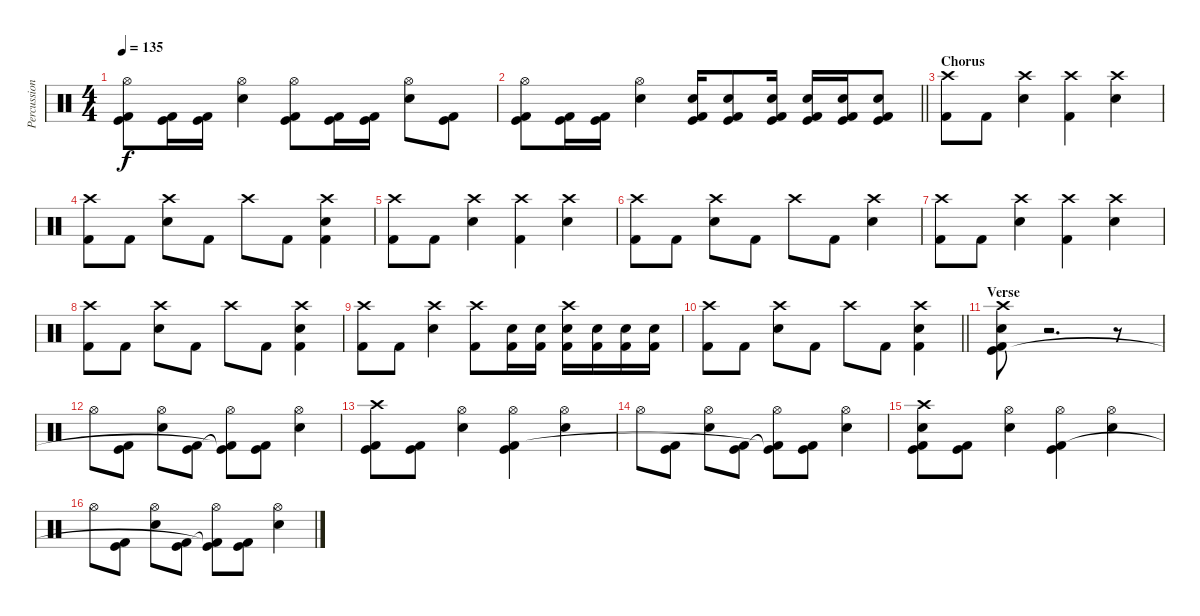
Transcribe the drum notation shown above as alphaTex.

\track ("Percussion" "Percussion") {instrument percussion}
\staff {score}
\articulation defaults
\ts (4 4)
\tempo 135
\clef neutral
\ks c
("Hi-Hat (open)" "Kick (hit)" "Kick (hit) 2").8{dy f} ("Kick (hit)" "Kick (hit) 2").16 ("Kick (hit)" "Kick (hit) 2").16 ("Hi-Hat (open)" "Electric Snare (hit)").4 ("Hi-Hat (open)" "Kick (hit)" "Kick (hit) 2").8 ("Kick (hit)" "Kick (hit) 2").16 ("Kick (hit)" "Kick (hit) 2").16 ("Hi-Hat (open)" "Electric Snare (hit)").8 ("Kick (hit)" "Kick (hit) 2").8 |
\barLineRight lightlight
("Hi-Hat (open)" "Kick (hit)" "Kick (hit) 2").8 ("Kick (hit)" "Kick (hit) 2").16 ("Kick (hit)" "Kick (hit) 2").16 ("Hi-Hat (open)" "Electric Snare (hit)").4 ("Electric Snare (hit)" "Kick (hit)" "Kick (hit) 2").16 ("Electric Snare (hit)" "Kick (hit)" "Kick (hit) 2").8 ("Electric Snare (hit)" "Kick (hit)" "Kick (hit) 2").16 ("Electric Snare (hit)" "Kick (hit)" "Kick (hit) 2").16 ("Electric Snare (hit)" "Kick (hit)" "Kick (hit) 2").16 ("Electric Snare (hit)" "Kick (hit)" "Kick (hit) 2").8 |
\section ("" "Chorus")
("Crash high (hit)" "Kick (hit) 2").8 "Kick (hit) 2".8 ("Crash high (hit)" "Electric Snare (hit)").4 ("Crash high (hit)" "Kick (hit) 2").4 ("Crash high (hit)" "Electric Snare (hit)").4 |
("Crash high (hit)" "Kick (hit) 2").8 "Kick (hit) 2".8 ("Crash high (hit)" "Electric Snare (hit)").8 "Kick (hit) 2".8 "Crash high (hit)".8 "Kick (hit) 2".8 ("Crash high (hit)" "Electric Snare (hit)" "Kick (hit) 2").4 |
("Crash high (hit)" "Kick (hit) 2").8 "Kick (hit) 2".8 ("Crash high (hit)" "Electric Snare (hit)").4 ("Crash high (hit)" "Kick (hit) 2").4 ("Crash high (hit)" "Electric Snare (hit)").4 |
("Crash high (hit)" "Kick (hit) 2").8 "Kick (hit) 2".8 ("Crash high (hit)" "Electric Snare (hit)").8 "Kick (hit) 2".8 "Crash high (hit)".8 "Kick (hit) 2".8 ("Crash high (hit)" "Electric Snare (hit)").4 |
("Crash high (hit)" "Kick (hit) 2").8 "Kick (hit) 2".8 ("Crash high (hit)" "Electric Snare (hit)").4 ("Crash high (hit)" "Kick (hit) 2").4 ("Crash high (hit)" "Electric Snare (hit)").4 |
("Crash high (hit)" "Kick (hit) 2").8 "Kick (hit) 2".8 ("Crash high (hit)" "Electric Snare (hit)").8 "Kick (hit) 2".8 "Crash high (hit)".8 "Kick (hit) 2".8 ("Crash high (hit)" "Electric Snare (hit)" "Kick (hit) 2").4 |
("Crash high (hit)" "Kick (hit) 2").8 "Kick (hit) 2".8 ("Crash high (hit)" "Electric Snare (hit)").4 ("Crash high (hit)" "Kick (hit) 2").8 ("Electric Snare (hit)" "Kick (hit) 2").16 ("Electric Snare (hit)" "Kick (hit) 2").16 ("Crash high (hit)" "Electric Snare (hit)" "Kick (hit) 2").16 ("Electric Snare (hit)" "Kick (hit) 2").16 ("Electric Snare (hit)" "Kick (hit) 2").16 ("Electric Snare (hit)" "Kick (hit) 2").16 |
\barLineRight lightlight
("Crash high (hit)" "Kick (hit) 2").8 "Kick (hit) 2".8 ("Crash high (hit)" "Electric Snare (hit)").8 "Kick (hit) 2".8 "Crash high (hit)".8 "Kick (hit) 2".8 ("Crash high (hit)" "Electric Snare (hit)" "Kick (hit) 2").4 |
\section ("" "Verse")
("Crash high (hit)" "Electric Snare (hit)" "Kick (hit)" "Kick (hit) 2").8 r.2{d volume 0} r.8{volume 16} |
"Hi-Hat (open)".8 ("Kick (hit)" "Kick (hit) 2").8 ("Hi-Hat (open)" "Electric Snare (hit)").8 ("Kick (hit)" "Kick (hit) 2").8 ("Hi-Hat (open)" "Kick (hit)"{t} "Kick (hit) 2"{t}).8 ("Kick (hit)" "Kick (hit) 2").8 ("Hi-Hat (open)" "Electric Snare (hit)").4 |
("Crash high (hit)" "Kick (hit)" "Kick (hit) 2").8 ("Kick (hit)" "Kick (hit) 2").8 ("Hi-Hat (open)" "Electric Snare (hit)").4 ("Hi-Hat (open)" "Kick (hit)" "Kick (hit) 2").4 ("Hi-Hat (open)" "Electric Snare (hit)").4 |
"Hi-Hat (open)".8 ("Kick (hit)" "Kick (hit) 2").8 ("Hi-Hat (open)" "Electric Snare (hit)").8 ("Kick (hit)" "Kick (hit) 2").8 ("Hi-Hat (open)" "Kick (hit)"{t} "Kick (hit) 2"{t}).8 ("Kick (hit)" "Kick (hit) 2").8 ("Hi-Hat (open)" "Electric Snare (hit)").4 |
("Crash high (hit)" "Electric Snare (hit)" "Kick (hit)" "Kick (hit) 2").8 ("Kick (hit)" "Kick (hit) 2").8 ("Hi-Hat (open)" "Electric Snare (hit)").4 ("Hi-Hat (open)" "Kick (hit)" "Kick (hit) 2").4 ("Hi-Hat (open)" "Electric Snare (hit)").4 |
"Hi-Hat (open)".8 ("Kick (hit)" "Kick (hit) 2").8 ("Hi-Hat (open)" "Electric Snare (hit)").8 ("Kick (hit)" "Kick (hit) 2").8 ("Hi-Hat (open)" "Kick (hit)"{t} "Kick (hit) 2"{t}).8 ("Kick (hit)" "Kick (hit) 2").8 ("Hi-Hat (open)" "Electric Snare (hit)").4
